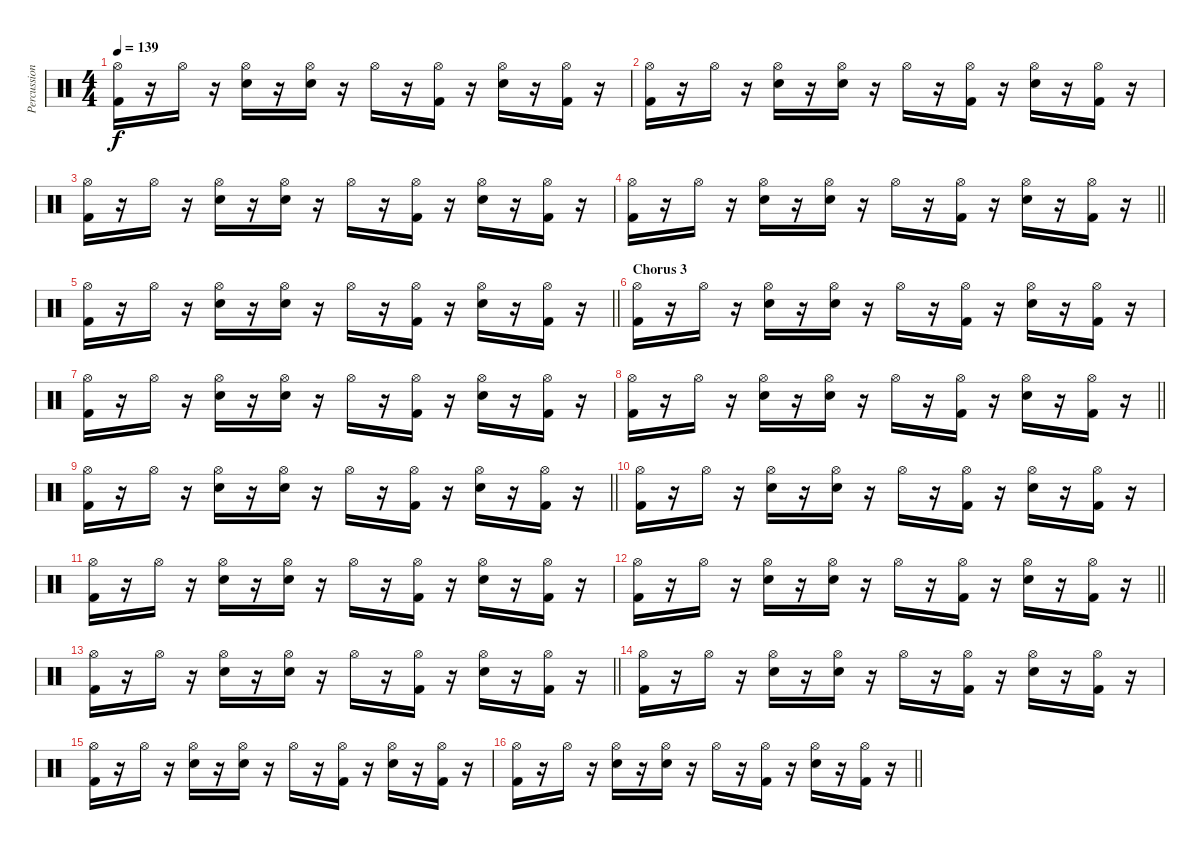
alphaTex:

\track ("Percussion" "Percussion") {instrument percussion}
\staff {score}
\articulation defaults
\ts (4 4)
\tempo 139
\clef neutral
\ks c
("Hi-Hat (open)" "Kick (hit) 2").16{dy f} r.16 "Hi-Hat (open)".16 r.16 ("Hi-Hat (open)" "Snare (hit) 2").16 r.16 ("Hi-Hat (open)" "Snare (hit) 2").16 r.16 "Hi-Hat (open)".16 r.16 ("Hi-Hat (open)" "Kick (hit) 2").16 r.16 ("Hi-Hat (open)" "Snare (hit) 2").16 r.16 ("Hi-Hat (open)" "Kick (hit) 2").16 r.16 |
("Hi-Hat (open)" "Kick (hit) 2").16 r.16 "Hi-Hat (open)".16 r.16 ("Hi-Hat (open)" "Snare (hit) 2").16 r.16 ("Hi-Hat (open)" "Snare (hit) 2").16 r.16 "Hi-Hat (open)".16 r.16 ("Hi-Hat (open)" "Kick (hit) 2").16 r.16 ("Hi-Hat (open)" "Snare (hit) 2").16 r.16 ("Hi-Hat (open)" "Kick (hit) 2").16 r.16 |
("Hi-Hat (open)" "Kick (hit) 2").16 r.16 "Hi-Hat (open)".16 r.16 ("Hi-Hat (open)" "Snare (hit) 2").16 r.16 ("Hi-Hat (open)" "Snare (hit) 2").16 r.16 "Hi-Hat (open)".16 r.16 ("Hi-Hat (open)" "Kick (hit) 2").16 r.16 ("Hi-Hat (open)" "Snare (hit) 2").16 r.16 ("Hi-Hat (open)" "Kick (hit) 2").16 r.16 |
\barLineRight lightlight
("Hi-Hat (open)" "Kick (hit) 2").16 r.16 "Hi-Hat (open)".16 r.16 ("Hi-Hat (open)" "Snare (hit) 2").16 r.16 ("Hi-Hat (open)" "Snare (hit) 2").16 r.16 "Hi-Hat (open)".16 r.16 ("Hi-Hat (open)" "Kick (hit) 2").16 r.16 ("Hi-Hat (open)" "Snare (hit) 2").16 r.16 ("Hi-Hat (open)" "Kick (hit) 2").16 r.16 |
\section ("" "")
\barLineRight lightlight
("Hi-Hat (open)" "Kick (hit) 2").16 r.16 "Hi-Hat (open)".16 r.16 ("Hi-Hat (open)" "Snare (hit) 2").16 r.16 ("Hi-Hat (open)" "Snare (hit) 2").16 r.16 "Hi-Hat (open)".16 r.16 ("Hi-Hat (open)" "Kick (hit) 2").16 r.16 ("Hi-Hat (open)" "Snare (hit) 2").16 r.16 ("Hi-Hat (open)" "Kick (hit) 2").16 r.16 |
\section ("" "Chorus 3")
("Hi-Hat (open)" "Kick (hit) 2").16 r.16 "Hi-Hat (open)".16 r.16 ("Hi-Hat (open)" "Snare (hit) 2").16 r.16 ("Hi-Hat (open)" "Snare (hit) 2").16 r.16 "Hi-Hat (open)".16 r.16 ("Hi-Hat (open)" "Kick (hit) 2").16 r.16 ("Hi-Hat (open)" "Snare (hit) 2").16 r.16 ("Hi-Hat (open)" "Kick (hit) 2").16 r.16 |
("Hi-Hat (open)" "Kick (hit) 2").16 r.16 "Hi-Hat (open)".16 r.16 ("Hi-Hat (open)" "Snare (hit) 2").16 r.16 ("Hi-Hat (open)" "Snare (hit) 2").16 r.16 "Hi-Hat (open)".16 r.16 ("Hi-Hat (open)" "Kick (hit) 2").16 r.16 ("Hi-Hat (open)" "Snare (hit) 2").16 r.16 ("Hi-Hat (open)" "Kick (hit) 2").16 r.16 |
\barLineRight lightlight
("Hi-Hat (open)" "Kick (hit) 2").16 r.16 "Hi-Hat (open)".16 r.16 ("Hi-Hat (open)" "Snare (hit) 2").16 r.16 ("Hi-Hat (open)" "Snare (hit) 2").16 r.16 "Hi-Hat (open)".16 r.16 ("Hi-Hat (open)" "Kick (hit) 2").16 r.16 ("Hi-Hat (open)" "Snare (hit) 2").16 r.16 ("Hi-Hat (open)" "Kick (hit) 2").16 r.16 |
\barLineRight lightlight
("Hi-Hat (open)" "Kick (hit) 2").16 r.16 "Hi-Hat (open)".16 r.16 ("Hi-Hat (open)" "Snare (hit) 2").16 r.16 ("Hi-Hat (open)" "Snare (hit) 2").16 r.16 "Hi-Hat (open)".16 r.16 ("Hi-Hat (open)" "Kick (hit) 2").16 r.16 ("Hi-Hat (open)" "Snare (hit) 2").16 r.16 ("Hi-Hat (open)" "Kick (hit) 2").16 r.16 |
("Hi-Hat (open)" "Kick (hit) 2").16 r.16 "Hi-Hat (open)".16 r.16 ("Hi-Hat (open)" "Snare (hit) 2").16 r.16 ("Hi-Hat (open)" "Snare (hit) 2").16 r.16 "Hi-Hat (open)".16 r.16 ("Hi-Hat (open)" "Kick (hit) 2").16 r.16 ("Hi-Hat (open)" "Snare (hit) 2").16 r.16 ("Hi-Hat (open)" "Kick (hit) 2").16 r.16 |
("Hi-Hat (open)" "Kick (hit) 2").16 r.16 "Hi-Hat (open)".16 r.16 ("Hi-Hat (open)" "Snare (hit) 2").16 r.16 ("Hi-Hat (open)" "Snare (hit) 2").16 r.16 "Hi-Hat (open)".16 r.16 ("Hi-Hat (open)" "Kick (hit) 2").16 r.16 ("Hi-Hat (open)" "Snare (hit) 2").16 r.16 ("Hi-Hat (open)" "Kick (hit) 2").16 r.16 |
\barLineRight lightlight
("Hi-Hat (open)" "Kick (hit) 2").16 r.16 "Hi-Hat (open)".16 r.16 ("Hi-Hat (open)" "Snare (hit) 2").16 r.16 ("Hi-Hat (open)" "Snare (hit) 2").16 r.16 "Hi-Hat (open)".16 r.16 ("Hi-Hat (open)" "Kick (hit) 2").16 r.16 ("Hi-Hat (open)" "Snare (hit) 2").16 r.16 ("Hi-Hat (open)" "Kick (hit) 2").16 r.16 |
\barLineRight lightlight
("Hi-Hat (open)" "Kick (hit) 2").16 r.16 "Hi-Hat (open)".16 r.16 ("Hi-Hat (open)" "Snare (hit) 2").16 r.16 ("Hi-Hat (open)" "Snare (hit) 2").16 r.16 "Hi-Hat (open)".16 r.16 ("Hi-Hat (open)" "Kick (hit) 2").16 r.16 ("Hi-Hat (open)" "Snare (hit) 2").16 r.16 ("Hi-Hat (open)" "Kick (hit) 2").16 r.16 |
("Hi-Hat (open)" "Kick (hit) 2").16 r.16 "Hi-Hat (open)".16 r.16 ("Hi-Hat (open)" "Snare (hit) 2").16 r.16 ("Hi-Hat (open)" "Snare (hit) 2").16 r.16 "Hi-Hat (open)".16 r.16 ("Hi-Hat (open)" "Kick (hit) 2").16 r.16 ("Hi-Hat (open)" "Snare (hit) 2").16 r.16 ("Hi-Hat (open)" "Kick (hit) 2").16 r.16 |
("Hi-Hat (open)" "Kick (hit) 2").16 r.16 "Hi-Hat (open)".16 r.16 ("Hi-Hat (open)" "Snare (hit) 2").16 r.16 ("Hi-Hat (open)" "Snare (hit) 2").16 r.16 "Hi-Hat (open)".16 r.16 ("Hi-Hat (open)" "Kick (hit) 2").16 r.16 ("Hi-Hat (open)" "Snare (hit) 2").16 r.16 ("Hi-Hat (open)" "Kick (hit) 2").16 r.16 |
\barLineRight lightlight
("Hi-Hat (open)" "Kick (hit) 2").16 r.16 "Hi-Hat (open)".16 r.16 ("Hi-Hat (open)" "Snare (hit) 2").16 r.16 ("Hi-Hat (open)" "Snare (hit) 2").16 r.16 "Hi-Hat (open)".16 r.16 ("Hi-Hat (open)" "Kick (hit) 2").16 r.16 ("Hi-Hat (open)" "Snare (hit) 2").16 r.16 ("Hi-Hat (open)" "Kick (hit) 2").16 r.16
